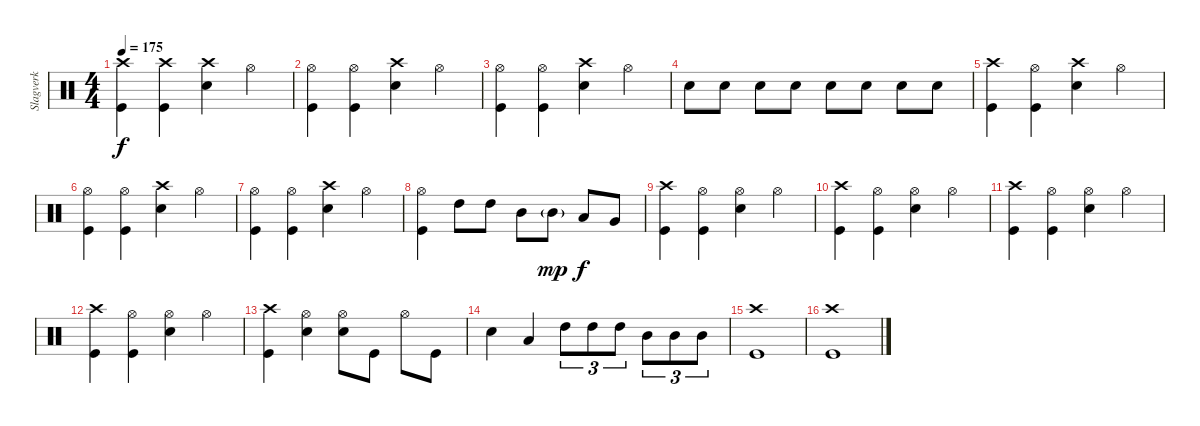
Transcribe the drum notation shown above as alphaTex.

\track ("Slagverk" "Slagverk") {instrument percussion}
\staff {score}
\articulation defaults
\ts (4 4)
\tempo 175
\clef neutral
\ks c
("Crash high (hit)" "Kick (hit)").4{dy f} ("Crash high (hit)" "Kick (hit)").4 ("Crash high (hit)" "Snare (hit) 2").4 "Hi-Hat (open)".4 |
("Hi-Hat (open)" "Kick (hit)").4 ("Hi-Hat (open)" "Kick (hit)").4 ("Crash high (hit)" "Snare (hit) 2").4 "Hi-Hat (open)".4 |
("Hi-Hat (open)" "Kick (hit)").4 ("Hi-Hat (open)" "Kick (hit)").4 ("Crash high (hit)" "Snare (hit) 2").4 "Hi-Hat (open)".4 |
"Snare (hit) 2".8 "Snare (hit) 2".8 "Snare (hit) 2".8 "Snare (hit) 2".8 "Snare (hit) 2".8 "Snare (hit) 2".8 "Snare (hit) 2".8 "Snare (hit) 2".8 |
("Crash high (hit)" "Kick (hit)").4 ("Hi-Hat (open)" "Kick (hit)").4 ("Crash high (hit)" "Electric Snare (hit)").4 "Hi-Hat (open)".4 |
("Hi-Hat (open)" "Kick (hit)").4 ("Hi-Hat (open)" "Kick (hit)").4 ("Crash high (hit)" "Electric Snare (hit)").4 "Hi-Hat (open)".4 |
("Hi-Hat (open)" "Kick (hit)").4 ("Hi-Hat (open)" "Kick (hit)").4 ("Crash high (hit)" "Electric Snare (hit)").4 "Hi-Hat (open)".4 |
("Hi-Hat (open)" "Kick (hit)").4 "High Tom (hit)".8 "High Tom (hit)".8 "Mid Tom (hit)".8 "Mid Tom (hit)"{g}.8{dy mp} "Low Tom (hit)".8{dy f} "Very Low Tom (hit)".8 |
("Crash high (hit)" "Kick (hit)").4 ("Hi-Hat (open)" "Kick (hit)").4 ("Hi-Hat (open)" "Electric Snare (hit)").4 "Hi-Hat (open)".4 |
("Crash high (hit)" "Kick (hit)").4 ("Hi-Hat (open)" "Kick (hit)").4 ("Hi-Hat (open)" "Electric Snare (hit)").4 "Hi-Hat (open)".4 |
("Crash high (hit)" "Kick (hit)").4 ("Hi-Hat (open)" "Kick (hit)").4 ("Hi-Hat (open)" "Electric Snare (hit)").4 "Hi-Hat (open)".4 |
("Crash high (hit)" "Kick (hit)").4 ("Hi-Hat (open)" "Kick (hit)").4 ("Hi-Hat (open)" "Electric Snare (hit)").4 "Hi-Hat (open)".4 |
("Crash high (hit)" "Kick (hit)").4 ("Hi-Hat (open)" "Electric Snare (hit)").4 ("Hi-Hat (open)" "Electric Snare (hit)").8 "Kick (hit)".8 "Hi-Hat (open)".8 "Kick (hit)".8 |
"Electric Snare (hit)".4 "Low Tom (hit)".4 "High Tom (hit)".8{tu (3 2)} "High Tom (hit)".8{tu (3 2)} "High Tom (hit)".8{tu (3 2)} "Mid Tom (hit)".8{tu (3 2)} "Mid Tom (hit)".8{tu (3 2)} "Mid Tom (hit)".8{tu (3 2)} |
("Crash high (hit)" "Kick (hit)").1 |
("Crash high (hit)" "Kick (hit)").1
